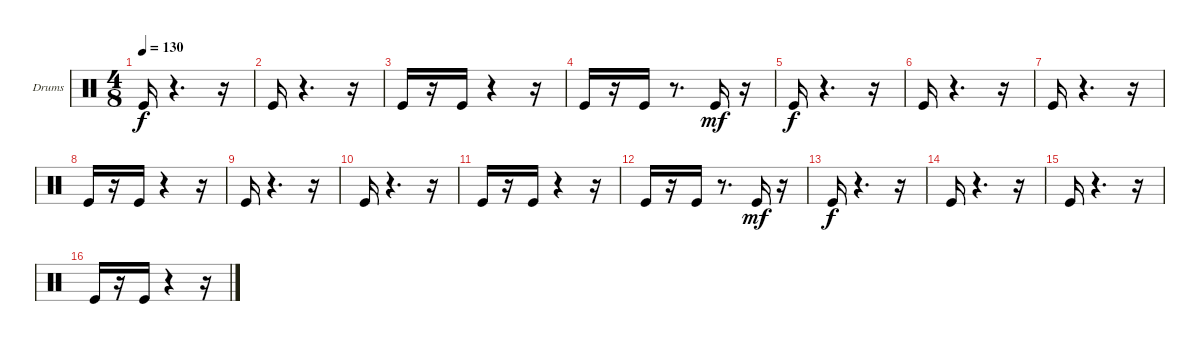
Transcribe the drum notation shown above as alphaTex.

\bracketExtendMode groupsimilarinstruments
\firstSystemTrackNameOrientation horizontal
\otherSystemsTrackNameOrientation horizontal
\track ("Ударные" "Drums") {instrument percussion}
\staff {score}
\articulation defaults
\ts (4 8)
\tempo 130
\clef neutral
\ks c "Kick (hit)".16{dy f}
r.4{d} r.16 |
"Kick (hit)".16 r.4{d} r.16 |
"Kick (hit)".16 r.16 "Kick (hit)".16 r.4 r.16 |
"Kick (hit)".16 r.16 "Kick (hit)".16 r.8{d} "Kick (hit)".16{dy mf} r.16 |
"Kick (hit)".16{dy f} r.4{d} r.16 |
"Kick (hit)".16 r.4{d} r.16 |
"Kick (hit)".16 r.4{d} r.16 |
"Kick (hit)".16 r.16 "Kick (hit)".16 r.4 r.16 |
"Kick (hit)".16 r.4{d} r.16 |
"Kick (hit)".16 r.4{d} r.16 |
"Kick (hit)".16 r.16 "Kick (hit)".16 r.4 r.16 |
"Kick (hit)".16 r.16 "Kick (hit)".16 r.8{d} "Kick (hit)".16{dy mf} r.16 |
"Kick (hit)".16{dy f} r.4{d} r.16 |
"Kick (hit)".16 r.4{d} r.16 |
"Kick (hit)".16 r.4{d} r.16 |
"Kick (hit)".16 r.16 "Kick (hit)".16 r.4 r.16
